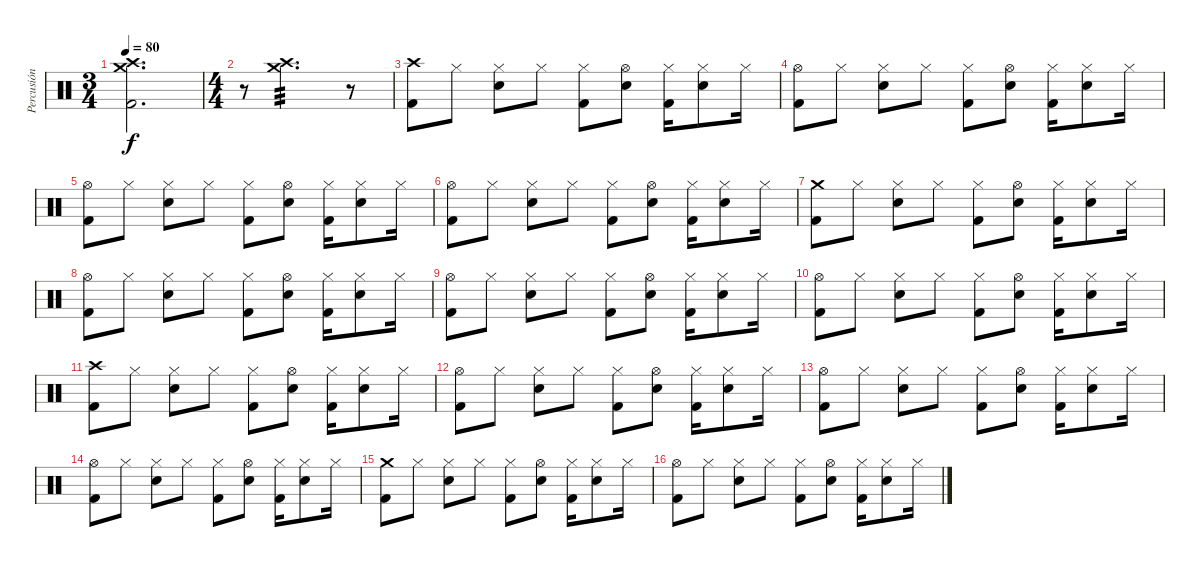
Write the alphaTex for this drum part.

\track ("Percusión" "Percusión") {instrument percussion}
\staff {score}
\articulation defaults
\ts (3 4)
\tempo 80
\clef neutral
\ks c
("Crash high (hit)" "Crash medium (hit)" "Kick (hit) 2").2{d dy f} |
\ts (4 4)
r.8 ("Crash medium (hit)" "Crash high (hit)").2{d tp 3} r.8 |
("Crash high (hit)" "Kick (hit) 2").8 "Hi-Hat (closed)".8 ("Hi-Hat (closed)" "Electric Snare (hit)").8 "Hi-Hat (closed)".8 ("Hi-Hat (closed)" "Kick (hit) 2").8 ("Hi-Hat (open)" "Electric Snare (hit)").8 ("Hi-Hat (closed)" "Kick (hit) 2").16 ("Hi-Hat (closed)" "Electric Snare (hit)").8 "Hi-Hat (closed)".16 |
("Hi-Hat (open)" "Kick (hit) 2").8 "Hi-Hat (closed)".8 ("Hi-Hat (closed)" "Electric Snare (hit)").8 "Hi-Hat (closed)".8 ("Hi-Hat (closed)" "Kick (hit) 2").8 ("Hi-Hat (open)" "Electric Snare (hit)").8 ("Hi-Hat (closed)" "Kick (hit) 2").16 ("Hi-Hat (closed)" "Electric Snare (hit)").8 "Hi-Hat (closed)".16 |
("Hi-Hat (open)" "Kick (hit) 2").8 "Hi-Hat (closed)".8 ("Hi-Hat (closed)" "Electric Snare (hit)").8 "Hi-Hat (closed)".8 ("Hi-Hat (closed)" "Kick (hit) 2").8 ("Hi-Hat (open)" "Electric Snare (hit)").8 ("Hi-Hat (closed)" "Kick (hit) 2").16 ("Hi-Hat (closed)" "Electric Snare (hit)").8 "Hi-Hat (closed)".16 |
("Hi-Hat (open)" "Kick (hit) 2").8 "Hi-Hat (closed)".8 ("Hi-Hat (closed)" "Electric Snare (hit)").8 "Hi-Hat (closed)".8 ("Hi-Hat (closed)" "Kick (hit) 2").8 ("Hi-Hat (open)" "Electric Snare (hit)").8 ("Hi-Hat (closed)" "Kick (hit) 2").16 ("Hi-Hat (closed)" "Electric Snare (hit)").8 "Hi-Hat (closed)".16 |
("Crash medium (hit)" "Kick (hit) 2").8 "Hi-Hat (closed)".8 ("Hi-Hat (closed)" "Electric Snare (hit)").8 "Hi-Hat (closed)".8 ("Hi-Hat (closed)" "Kick (hit) 2").8 ("Hi-Hat (open)" "Electric Snare (hit)").8 ("Hi-Hat (closed)" "Kick (hit) 2").16 ("Hi-Hat (closed)" "Electric Snare (hit)").8 "Hi-Hat (closed)".16 |
("Hi-Hat (open)" "Kick (hit) 2").8 "Hi-Hat (closed)".8 ("Hi-Hat (closed)" "Electric Snare (hit)").8 "Hi-Hat (closed)".8 ("Hi-Hat (closed)" "Kick (hit) 2").8 ("Hi-Hat (open)" "Electric Snare (hit)").8 ("Hi-Hat (closed)" "Kick (hit) 2").16 ("Hi-Hat (closed)" "Electric Snare (hit)").8 "Hi-Hat (closed)".16 |
("Hi-Hat (open)" "Kick (hit) 2").8 "Hi-Hat (closed)".8 ("Hi-Hat (closed)" "Electric Snare (hit)").8 "Hi-Hat (closed)".8 ("Hi-Hat (closed)" "Kick (hit) 2").8 ("Hi-Hat (open)" "Electric Snare (hit)").8 ("Hi-Hat (closed)" "Kick (hit) 2").16 ("Hi-Hat (closed)" "Electric Snare (hit)").8 "Hi-Hat (closed)".16 |
("Hi-Hat (open)" "Kick (hit) 2").8 "Hi-Hat (closed)".8 ("Hi-Hat (closed)" "Electric Snare (hit)").8 "Hi-Hat (closed)".8 ("Hi-Hat (closed)" "Kick (hit) 2").8 ("Hi-Hat (open)" "Electric Snare (hit)").8 ("Hi-Hat (closed)" "Kick (hit) 2").16 ("Hi-Hat (closed)" "Electric Snare (hit)").8 "Hi-Hat (closed)".16 |
("Crash high (hit)" "Kick (hit) 2").8 "Hi-Hat (closed)".8 ("Hi-Hat (closed)" "Electric Snare (hit)").8 "Hi-Hat (closed)".8 ("Hi-Hat (closed)" "Kick (hit) 2").8 ("Hi-Hat (open)" "Electric Snare (hit)").8 ("Hi-Hat (closed)" "Kick (hit) 2").16 ("Hi-Hat (closed)" "Electric Snare (hit)").8 "Hi-Hat (closed)".16 |
("Hi-Hat (open)" "Kick (hit) 2").8 "Hi-Hat (closed)".8 ("Hi-Hat (closed)" "Electric Snare (hit)").8 "Hi-Hat (closed)".8 ("Hi-Hat (closed)" "Kick (hit) 2").8 ("Hi-Hat (open)" "Electric Snare (hit)").8 ("Hi-Hat (closed)" "Kick (hit) 2").16 ("Hi-Hat (closed)" "Electric Snare (hit)").8 "Hi-Hat (closed)".16 |
("Hi-Hat (open)" "Kick (hit) 2").8 "Hi-Hat (closed)".8 ("Hi-Hat (closed)" "Electric Snare (hit)").8 "Hi-Hat (closed)".8 ("Hi-Hat (closed)" "Kick (hit) 2").8 ("Hi-Hat (open)" "Electric Snare (hit)").8 ("Hi-Hat (closed)" "Kick (hit) 2").16 ("Hi-Hat (closed)" "Electric Snare (hit)").8 "Hi-Hat (closed)".16 |
("Hi-Hat (open)" "Kick (hit) 2").8 "Hi-Hat (closed)".8 ("Hi-Hat (closed)" "Electric Snare (hit)").8 "Hi-Hat (closed)".8 ("Hi-Hat (closed)" "Kick (hit) 2").8 ("Hi-Hat (open)" "Electric Snare (hit)").8 ("Hi-Hat (closed)" "Kick (hit) 2").16 ("Hi-Hat (closed)" "Electric Snare (hit)").8 "Hi-Hat (closed)".16 |
("Crash medium (hit)" "Kick (hit) 2").8 "Hi-Hat (closed)".8 ("Hi-Hat (closed)" "Electric Snare (hit)").8 "Hi-Hat (closed)".8 ("Hi-Hat (closed)" "Kick (hit) 2").8 ("Hi-Hat (open)" "Electric Snare (hit)").8 ("Hi-Hat (closed)" "Kick (hit) 2").16 ("Hi-Hat (closed)" "Electric Snare (hit)").8 "Hi-Hat (closed)".16 |
("Hi-Hat (open)" "Kick (hit) 2").8 "Hi-Hat (closed)".8 ("Hi-Hat (closed)" "Electric Snare (hit)").8 "Hi-Hat (closed)".8 ("Hi-Hat (closed)" "Kick (hit) 2").8 ("Hi-Hat (open)" "Electric Snare (hit)").8 ("Hi-Hat (closed)" "Kick (hit) 2").16 ("Hi-Hat (closed)" "Electric Snare (hit)").8 "Hi-Hat (closed)".16
